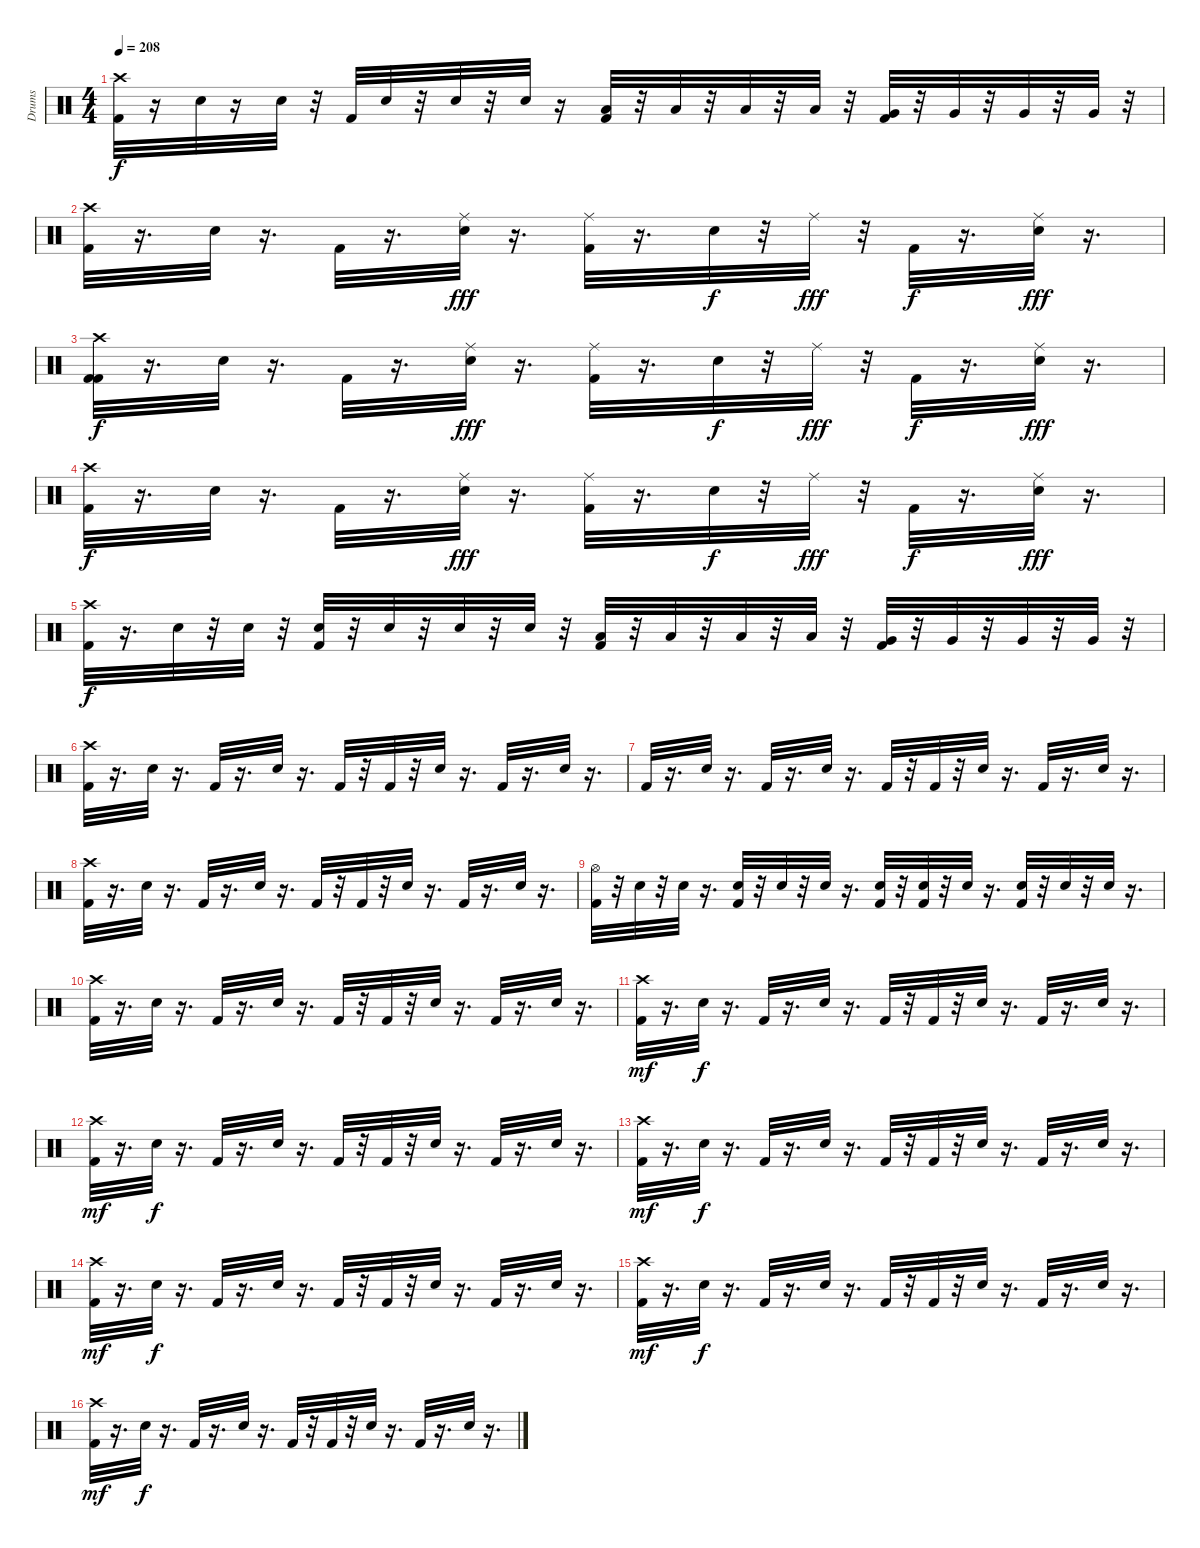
\track ("Drums" "Drums") {instrument percussion}
\staff {score}
\articulation defaults
\ts (4 4)
\tempo 208
\clef neutral
\ks c
("Kick (hit) 2" "Crash high (hit)").32{dy f} r.16 "Electric Snare (hit)".32 r.16 "Electric Snare (hit)".32 r.32 "Kick (hit) 2".32 "Electric Snare (hit)".32 r.32 "Electric Snare (hit)".32 r.32 "Electric Snare (hit)".32 r.16 ("Kick (hit) 2" "Low Tom (hit)").32 r.32 "Low Tom (hit)".32 r.32 "Low Tom (hit)".32 r.32 "Low Tom (hit)".32 r.32 ("Kick (hit) 2" "Very Low Tom (hit)").32 r.32 "Very Low Tom (hit)".32 r.32 "Very Low Tom (hit)".32 r.32 "Very Low Tom (hit)".32 r.32 |
("Kick (hit) 2" "Crash high (hit)").32 r.16{d} "Electric Snare (hit)".32 r.16{d} "Kick (hit) 2".32 r.16{d} ("Electric Snare (hit)" "Ride (middle)").32{dy fff} r.16{d} ("Kick (hit) 2" "Ride (middle)").32 r.16{d} "Electric Snare (hit)".32{dy f} r.32 "Ride (middle)".32{dy fff} r.32 "Kick (hit) 2".32{dy f} r.16{d} ("Electric Snare (hit)" "Ride (middle)").32{dy fff} r.16{d} |
("Kick (hit) 2" "Kick (hit) 2" "Crash high (hit)").32{dy f} r.16{d} "Electric Snare (hit)".32 r.16{d} "Kick (hit) 2".32 r.16{d} ("Electric Snare (hit)" "Ride (middle)").32{dy fff} r.16{d} ("Kick (hit) 2" "Ride (middle)").32 r.16{d} "Electric Snare (hit)".32{dy f} r.32 "Ride (middle)".32{dy fff} r.32 "Kick (hit) 2".32{dy f} r.16{d} ("Electric Snare (hit)" "Ride (middle)").32{dy fff} r.16{d} |
("Kick (hit) 2" "Crash high (hit)").32{dy f} r.16{d} "Electric Snare (hit)".32 r.16{d} "Kick (hit) 2".32 r.16{d} ("Electric Snare (hit)" "Ride (middle)").32{dy fff} r.16{d} ("Kick (hit) 2" "Ride (middle)").32 r.16{d} "Electric Snare (hit)".32{dy f} r.32 "Ride (middle)".32{dy fff} r.32 "Kick (hit) 2".32{dy f} r.16{d} ("Electric Snare (hit)" "Ride (middle)").32{dy fff} r.16{d} |
("Kick (hit) 2" "Crash high (hit)").32{dy f} r.16{d} "Electric Snare (hit)".32 r.32 "Electric Snare (hit)".32 r.32 ("Kick (hit) 2" "Electric Snare (hit)").32 r.32 "Electric Snare (hit)".32 r.32 "Electric Snare (hit)".32 r.32 "Electric Snare (hit)".32 r.32 ("Kick (hit) 2" "Low Tom (hit)").32 r.32 "Low Tom (hit)".32 r.32 "Low Tom (hit)".32 r.32 "Low Tom (hit)".32 r.32 ("Kick (hit) 2" "Very Low Tom (hit)").32 r.32 "Very Low Tom (hit)".32 r.32 "Very Low Tom (hit)".32 r.32 "Very Low Tom (hit)".32 r.32 |
("Kick (hit) 2" "Crash high (hit)").32 r.16{d} "Electric Snare (hit)".32 r.16{d} "Kick (hit) 2".32 r.16{d} "Electric Snare (hit)".32 r.16{d} "Kick (hit) 2".32 r.32 "Kick (hit) 2".32 r.32 "Electric Snare (hit)".32 r.16{d} "Kick (hit) 2".32 r.16{d} "Electric Snare (hit)".32 r.16{d} |
"Kick (hit) 2".32 r.16{d} "Electric Snare (hit)".32 r.16{d} "Kick (hit) 2".32 r.16{d} "Electric Snare (hit)".32 r.16{d} "Kick (hit) 2".32 r.32 "Kick (hit) 2".32 r.32 "Electric Snare (hit)".32 r.16{d} "Kick (hit) 2".32 r.16{d} "Electric Snare (hit)".32 r.16{d} |
("Kick (hit) 2" "Crash high (hit)").32 r.16{d} "Electric Snare (hit)".32 r.16{d} "Kick (hit) 2".32 r.16{d} "Electric Snare (hit)".32 r.16{d} "Kick (hit) 2".32 r.32 "Kick (hit) 2".32 r.32 "Electric Snare (hit)".32 r.16{d} "Kick (hit) 2".32 r.16{d} "Electric Snare (hit)".32 r.16{d} |
("Kick (hit) 2" "Hi-Hat (open)").32 r.32 "Electric Snare (hit)".32 r.32 "Electric Snare (hit)".32 r.16{d} ("Kick (hit) 2" "Electric Snare (hit)").32 r.32 "Electric Snare (hit)".32 r.32 "Electric Snare (hit)".32 r.16{d} ("Kick (hit) 2" "Electric Snare (hit)").32 r.32 ("Kick (hit) 2" "Electric Snare (hit)").32 r.32 "Electric Snare (hit)".32 r.16{d} ("Kick (hit) 2" "Electric Snare (hit)").32 r.32 "Electric Snare (hit)".32 r.32 "Electric Snare (hit)".32 r.16{d} |
("Kick (hit) 2" "Crash high (hit)").32 r.16{d} "Electric Snare (hit)".32 r.16{d} "Kick (hit) 2".32 r.16{d} "Electric Snare (hit)".32 r.16{d} "Kick (hit) 2".32 r.32 "Kick (hit) 2".32 r.32 "Electric Snare (hit)".32 r.16{d} "Kick (hit) 2".32 r.16{d} "Electric Snare (hit)".32 r.16{d} |
("Kick (hit) 2" "Crash high (hit)").32{dy mf} r.16{d} "Electric Snare (hit)".32{dy f} r.16{d} "Kick (hit) 2".32 r.16{d} "Electric Snare (hit)".32 r.16{d} "Kick (hit) 2".32 r.32 "Kick (hit) 2".32 r.32 "Electric Snare (hit)".32 r.16{d} "Kick (hit) 2".32 r.16{d} "Electric Snare (hit)".32 r.16{d} |
("Kick (hit) 2" "Crash high (hit)").32{dy mf} r.16{d} "Electric Snare (hit)".32{dy f} r.16{d} "Kick (hit) 2".32 r.16{d} "Electric Snare (hit)".32 r.16{d} "Kick (hit) 2".32 r.32 "Kick (hit) 2".32 r.32 "Electric Snare (hit)".32 r.16{d} "Kick (hit) 2".32 r.16{d} "Electric Snare (hit)".32 r.16{d} |
("Kick (hit) 2" "Crash high (hit)").32{dy mf} r.16{d} "Electric Snare (hit)".32{dy f} r.16{d} "Kick (hit) 2".32 r.16{d} "Electric Snare (hit)".32 r.16{d} "Kick (hit) 2".32 r.32 "Kick (hit) 2".32 r.32 "Electric Snare (hit)".32 r.16{d} "Kick (hit) 2".32 r.16{d} "Electric Snare (hit)".32 r.16{d} |
("Kick (hit) 2" "Crash high (hit)").32{dy mf} r.16{d} "Electric Snare (hit)".32{dy f} r.16{d} "Kick (hit) 2".32 r.16{d} "Electric Snare (hit)".32 r.16{d} "Kick (hit) 2".32 r.32 "Kick (hit) 2".32 r.32 "Electric Snare (hit)".32 r.16{d} "Kick (hit) 2".32 r.16{d} "Electric Snare (hit)".32 r.16{d} |
("Kick (hit) 2" "Crash high (hit)").32{dy mf} r.16{d} "Electric Snare (hit)".32{dy f} r.16{d} "Kick (hit) 2".32 r.16{d} "Electric Snare (hit)".32 r.16{d} "Kick (hit) 2".32 r.32 "Kick (hit) 2".32 r.32 "Electric Snare (hit)".32 r.16{d} "Kick (hit) 2".32 r.16{d} "Electric Snare (hit)".32 r.16{d} |
("Kick (hit) 2" "Crash high (hit)").32{dy mf} r.16{d} "Electric Snare (hit)".32{dy f} r.16{d} "Kick (hit) 2".32 r.16{d} "Electric Snare (hit)".32 r.16{d} "Kick (hit) 2".32 r.32 "Kick (hit) 2".32 r.32 "Electric Snare (hit)".32 r.16{d} "Kick (hit) 2".32 r.16{d} "Electric Snare (hit)".32 r.16{d}
